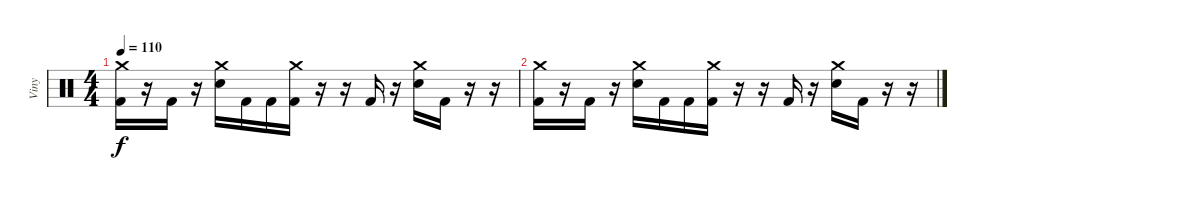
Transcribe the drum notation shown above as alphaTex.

\track ("Viny" "Viny") {instrument percussion}
\staff {score}
\articulation defaults
\ts (4 4)
\tempo 110
\clef neutral
\ks c
("Crash medium (hit)" "Kick (hit) 2").16{dy f} r.16 "Kick (hit) 2".16 r.16 ("Crash medium (hit)" "Electric Snare (hit)").16 "Kick (hit) 2".16 "Kick (hit) 2".16 ("Crash medium (hit)" "Kick (hit) 2").16 r.16 r.16 "Kick (hit) 2".16 r.16 ("Crash medium (hit)" "Electric Snare (hit)").16 "Kick (hit) 2".16 r.16 r.16 |
("Crash medium (hit)" "Kick (hit) 2").16 r.16 "Kick (hit) 2".16 r.16 ("Crash medium (hit)" "Electric Snare (hit)").16 "Kick (hit) 2".16 "Kick (hit) 2".16 ("Crash medium (hit)" "Kick (hit) 2").16 r.16 r.16 "Kick (hit) 2".16 r.16 ("Crash medium (hit)" "Electric Snare (hit)").16 "Kick (hit) 2".16 r.16 r.16
